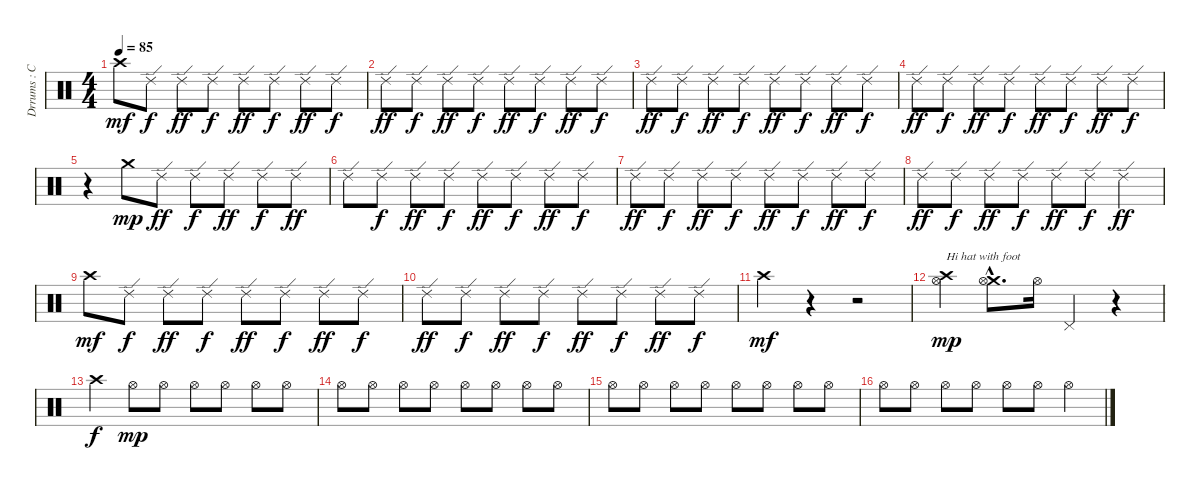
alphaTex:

\track ("Drrums : Cymbals" "Drrums : C") {instrument percussion}
\staff {score}
\articulation defaults
\ts (4 4)
\tempo 85
\clef neutral
\ks c "Crash high (hit)".8{dy mf} "Ride (edge) 2".8{dy f} "Ride (edge) 2".8{dy ff} "Ride (edge) 2".8{dy f} "Ride (edge) 2".8{dy ff} "Ride (edge) 2".8{dy f} "Ride (edge) 2".8{dy ff} "Ride (edge) 2".8{dy f}
|
"Ride (edge) 2".8{dy ff} "Ride (edge) 2".8{dy f} "Ride (edge) 2".8{dy ff} "Ride (edge) 2".8{dy f} "Ride (edge) 2".8{dy ff} "Ride (edge) 2".8{dy f} "Ride (edge) 2".8{dy ff} "Ride (edge) 2".8{dy f} |
"Ride (edge) 2".8{dy ff} "Ride (edge) 2".8{dy f} "Ride (edge) 2".8{dy ff} "Ride (edge) 2".8{dy f} "Ride (edge) 2".8{dy ff} "Ride (edge) 2".8{dy f} "Ride (edge) 2".8{dy ff} "Ride (edge) 2".8{dy f} |
"Ride (edge) 2".8{dy ff} "Ride (edge) 2".8{dy f} "Ride (edge) 2".8{dy ff} "Ride (edge) 2".8{dy f} "Ride (edge) 2".8{dy ff} "Ride (edge) 2".8{dy f} "Ride (edge) 2".8{dy ff} "Ride (edge) 2".8{dy f} |
r.4 "Crash medium (hit)".8{dy mp} "Ride (edge) 2".8{dy ff} "Ride (edge) 2".8{dy f} "Ride (edge) 2".8{dy ff} "Ride (edge) 2".8{dy f} "Ride (edge) 2".8{dy ff} |
"Ride (edge) 2".8 "Ride (edge) 2".8{dy f} "Ride (edge) 2".8{dy ff} "Ride (edge) 2".8{dy f} "Ride (edge) 2".8{dy ff} "Ride (edge) 2".8{dy f} "Ride (edge) 2".8{dy ff} "Ride (edge) 2".8{dy f} |
"Ride (edge) 2".8{dy ff} "Ride (edge) 2".8{dy f} "Ride (edge) 2".8{dy ff} "Ride (edge) 2".8{dy f} "Ride (edge) 2".8{dy ff} "Ride (edge) 2".8{dy f} "Ride (edge) 2".8{dy ff} "Ride (edge) 2".8{dy f} |
"Ride (edge) 2".8{dy ff} "Ride (edge) 2".8{dy f} "Ride (edge) 2".8{dy ff} "Ride (edge) 2".8{dy f} "Ride (edge) 2".8{dy ff} "Ride (edge) 2".8{dy f} "Ride (edge) 2".4{dy ff} |
"Crash high (hit)".8{dy mf} "Ride (edge) 2".8{dy f} "Ride (edge) 2".8{dy ff} "Ride (edge) 2".8{dy f} "Ride (edge) 2".8{dy ff} "Ride (edge) 2".8{dy f} "Ride (edge) 2".8{dy ff} "Ride (edge) 2".8{dy f} |
"Ride (edge) 2".8{dy ff} "Ride (edge) 2".8{dy f} "Ride (edge) 2".8{dy ff} "Ride (edge) 2".8{dy f} "Ride (edge) 2".8{dy ff} "Ride (edge) 2".8{dy f} "Ride (edge) 2".8{dy ff} "Ride (edge) 2".8{dy f} |
"Crash high (hit)".4{dy mf} r.4 r.2 |
("Crash high (hit)" "Hi-Hat (open)").4{txt "Hi hat with foot" dy mp} ("Crash medium (hit)"{hac} "Hi-Hat (open)"{hac}).8{d} "Hi-Hat (open)".16 "Pedal Hi-Hat (hit)".4 r.4 |
"Crash high (hit)".4{dy f} "Hi-Hat (open)".8{dy mp} "Hi-Hat (open)".8 "Hi-Hat (open)".8 "Hi-Hat (open)".8 "Hi-Hat (open)".8 "Hi-Hat (open)".8 |
"Hi-Hat (open)".8 "Hi-Hat (open)".8 "Hi-Hat (open)".8 "Hi-Hat (open)".8 "Hi-Hat (open)".8 "Hi-Hat (open)".8 "Hi-Hat (open)".8 "Hi-Hat (open)".8 |
"Hi-Hat (open)".8 "Hi-Hat (open)".8 "Hi-Hat (open)".8 "Hi-Hat (open)".8 "Hi-Hat (open)".8 "Hi-Hat (open)".8 "Hi-Hat (open)".8 "Hi-Hat (open)".8 |
"Hi-Hat (open)".8 "Hi-Hat (open)".8 "Hi-Hat (open)".8 "Hi-Hat (open)".8 "Hi-Hat (open)".8 "Hi-Hat (open)".8 "Hi-Hat (open)".4
